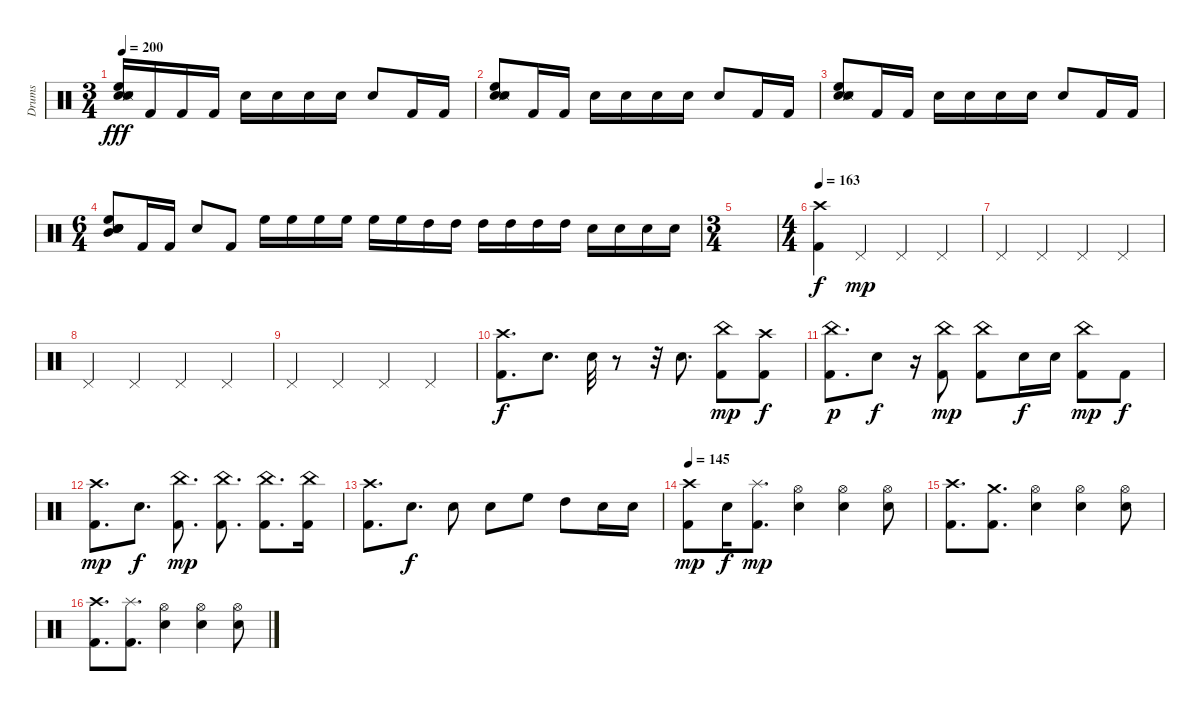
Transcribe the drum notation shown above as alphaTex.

\track ("Drums" "Drums") {instrument percussion}
\staff {score}
\articulation defaults
\ts (3 4)
\tempo 200
\clef neutral
\ks c
("Electric Snare (hit)" "High Floor Tom (hit)" "Snare (side stick) 3" "Metronome (hit)" "Snare (hit)").16{dy fff} "Kick (hit) 2".16 "Kick (hit) 2".16 "Kick (hit) 2".16 "Electric Snare (hit)".16 "Electric Snare (hit)".16 "Electric Snare (hit)".16 "Electric Snare (hit)".16 "Electric Snare (hit)".8 "Kick (hit) 2".16 "Kick (hit) 2".16 |
("Electric Snare (hit)" "High Floor Tom (hit)" "Snare (side stick) 3" "Metronome (hit)" "Snare (hit)").8 "Kick (hit) 2".16 "Kick (hit) 2".16 "Electric Snare (hit)".16 "Electric Snare (hit)".16 "Electric Snare (hit)".16 "Electric Snare (hit)".16 "Electric Snare (hit)".8 "Kick (hit) 2".16 "Kick (hit) 2".16 |
("Electric Snare (hit)" "High Floor Tom (hit)" "Snare (side stick) 3" "Metronome (hit)" "Snare (hit)").8 "Kick (hit) 2".16 "Kick (hit) 2".16 "Electric Snare (hit)".16 "Electric Snare (hit)".16 "Electric Snare (hit)".16 "Electric Snare (hit)".16 "Electric Snare (hit)".8 "Kick (hit) 2".16 "Kick (hit) 2".16 |
\ts (6 4)
("Electric Snare (hit)" "High Floor Tom (hit)" "Mid Tom (hit)" "Snare (hit)" "Snare (hit)").8 "Kick (hit) 2".16 "Kick (hit) 2".16 "Electric Snare (hit)".8 "Kick (hit) 2".8 "High Floor Tom (hit)".16{balance 16} "High Floor Tom (hit)".16 "High Floor Tom (hit)".16 "High Floor Tom (hit)".16 "High Floor Tom (hit)".16 "High Floor Tom (hit)".16 "High Tom (hit)".16{balance 0} "High Tom (hit)".16 "High Tom (hit)".16 "High Tom (hit)".16 "High Tom (hit)".16 "High Tom (hit)".16 "Electric Snare (hit)".16{balance 8} "Electric Snare (hit)".16 "Electric Snare (hit)".16 "Electric Snare (hit)".16 |
\ts (3 4)
|
\ts (4 4)
\tempo 163
("Crash high (hit)" "Kick (hit) 2").4{dy f} "Pedal Hi-Hat (hit)".4{dy mp} "Pedal Hi-Hat (hit)".4 "Pedal Hi-Hat (hit)".4 |
"Pedal Hi-Hat (hit)".4 "Pedal Hi-Hat (hit)".4 "Pedal Hi-Hat (hit)".4 "Pedal Hi-Hat (hit)".4 |
"Pedal Hi-Hat (hit)".4 "Pedal Hi-Hat (hit)".4 "Pedal Hi-Hat (hit)".4 "Pedal Hi-Hat (hit)".4 |
"Pedal Hi-Hat (hit)".4 "Pedal Hi-Hat (hit)".4 "Pedal Hi-Hat (hit)".4 "Pedal Hi-Hat (hit)".4 |
("Kick (hit) 2" "Crash high (hit)").8{d dy f} "Electric Snare (hit)".8{d} "Electric Snare (hit)".32 r.8 r.32 "Electric Snare (hit)".8{d} ("Kick (hit) 2" "China (hit)").8{dy mp} ("Kick (hit) 2" "Crash high (hit)").8{dy f} |
("China (hit)" "Kick (hit) 2").8{d dy p} "Electric Snare (hit)".8{dy f} r.16 ("Kick (hit) 2" "China (hit)").8{dy mp} ("Kick (hit) 2" "China (hit)").8 "Electric Snare (hit)".16{dy f} "Electric Snare (hit)".16 ("Kick (hit) 2" "China (hit)").8{dy mp} "Kick (hit) 2".8{dy f} |
("Crash high (hit)" "Kick (hit) 2").8{d dy mp} "Electric Snare (hit)".8{d dy f} ("Kick (hit) 2" "China (hit)").8{d dy mp} ("Kick (hit) 2" "China (hit)").8{d} ("China (hit)" "Kick (hit) 2").8{d} ("Kick (hit) 2" "China (hit)").16 |
("Kick (hit) 2" "Crash high (hit)").8{d} "Electric Snare (hit)".8{d dy f} "Electric Snare (hit)".8 "Electric Snare (hit)".8 "High Floor Tom (hit)".8 "High Tom (hit)".8 "Electric Snare (hit)".16 "Electric Snare (hit)".16 |
\tempo 145
("Crash high (hit)" "Kick (hit) 2").8{dy mp} "Electric Snare (hit)".16{dy f} ("Splash (hit)" "Kick (hit) 2").8{d dy mp} ("Hi-Hat (open)" "Electric Snare (hit)").4 ("Hi-Hat (open)" "Electric Snare (hit)").4 ("Hi-Hat (open)" "Electric Snare (hit)").8 |
("Kick (hit) 2" "Crash high (hit)").8{d} ("Kick (hit) 2" "Crash medium (hit)").8{d} ("Hi-Hat (open)" "Electric Snare (hit)").4 ("Hi-Hat (open)" "Electric Snare (hit)").4 ("Hi-Hat (open)" "Electric Snare (hit)").8 |
("Crash high (hit)" "Kick (hit) 2").8{d} ("Splash (hit)" "Kick (hit) 2").8{d} ("Hi-Hat (open)" "Electric Snare (hit)").4 ("Hi-Hat (open)" "Electric Snare (hit)").4 ("Hi-Hat (open)" "Electric Snare (hit)").8
